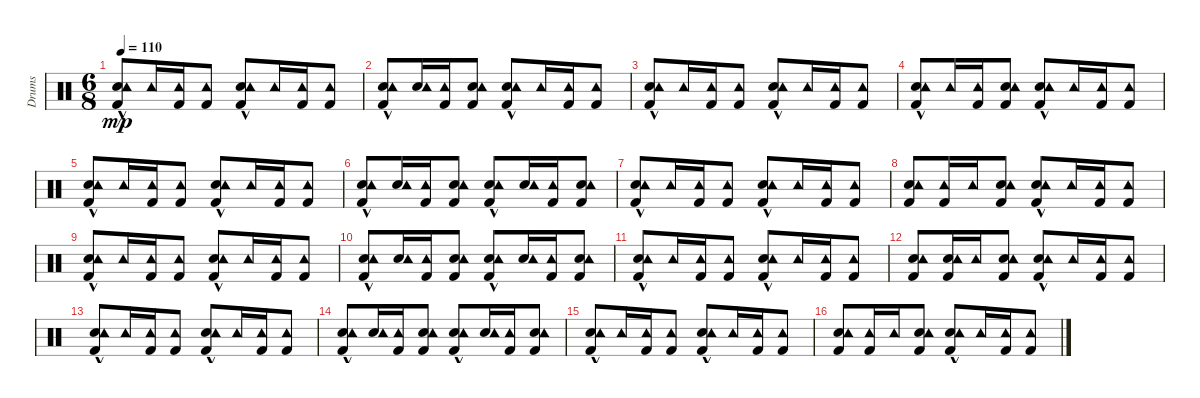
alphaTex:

\track ("Drums" "Drums") {instrument percussion}
\staff {score}
\articulation defaults
\ts (6 8)
\tempo 110
\clef neutral
\ks c
("Hand Clap (hit)" "Tambourine (hit)" "Kick (hit) 2"{hac}).8{dy mp} "Tambourine (hit)".16 ("Tambourine (hit)" "Kick (hit) 2").16 ("Tambourine (hit)" "Kick (hit) 2").8 ("Hand Clap (hit)" "Tambourine (hit)" "Kick (hit) 2"{hac}).8 "Tambourine (hit)".16 ("Tambourine (hit)" "Kick (hit) 2").16 ("Tambourine (hit)" "Kick (hit) 2").8 |
("Hand Clap (hit)" "Tambourine (hit)" "Kick (hit) 2"{hac}).8 ("Hand Clap (hit)" "Tambourine (hit)").16 ("Tambourine (hit)" "Kick (hit) 2").16 ("Hand Clap (hit)" "Tambourine (hit)" "Kick (hit) 2").8 ("Hand Clap (hit)" "Tambourine (hit)" "Kick (hit) 2"{hac}).8 "Tambourine (hit)".16 ("Tambourine (hit)" "Kick (hit) 2").16 ("Tambourine (hit)" "Kick (hit) 2").8 |
("Hand Clap (hit)" "Tambourine (hit)" "Kick (hit) 2"{hac}).8 "Tambourine (hit)".16 ("Tambourine (hit)" "Kick (hit) 2").16 ("Tambourine (hit)" "Kick (hit) 2").8 ("Hand Clap (hit)" "Tambourine (hit)" "Kick (hit) 2"{hac}).8 "Tambourine (hit)".16 ("Tambourine (hit)" "Kick (hit) 2").16 ("Tambourine (hit)" "Kick (hit) 2").8 |
("Hand Clap (hit)" "Tambourine (hit)" "Kick (hit) 2"{hac}).8 "Tambourine (hit)".16 ("Tambourine (hit)" "Kick (hit) 2").16 ("Hand Clap (hit)" "Tambourine (hit)" "Kick (hit) 2").8 ("Hand Clap (hit)" "Tambourine (hit)" "Kick (hit) 2"{hac}).8 "Tambourine (hit)".16 ("Tambourine (hit)" "Kick (hit) 2").16 ("Tambourine (hit)" "Kick (hit) 2").8 |
("Hand Clap (hit)" "Tambourine (hit)" "Kick (hit) 2"{hac}).8 "Tambourine (hit)".16 ("Tambourine (hit)" "Kick (hit) 2").16 ("Tambourine (hit)" "Kick (hit) 2").8 ("Hand Clap (hit)" "Tambourine (hit)" "Kick (hit) 2"{hac}).8 "Tambourine (hit)".16 ("Tambourine (hit)" "Kick (hit) 2").16 ("Tambourine (hit)" "Kick (hit) 2").8 |
("Hand Clap (hit)" "Tambourine (hit)" "Kick (hit) 2"{hac}).8 ("Hand Clap (hit)" "Tambourine (hit)").16 ("Tambourine (hit)" "Kick (hit) 2").16 ("Hand Clap (hit)" "Tambourine (hit)" "Kick (hit) 2").8 ("Hand Clap (hit)" "Tambourine (hit)" "Kick (hit) 2"{hac}).8 ("Hand Clap (hit)" "Tambourine (hit)").16 ("Tambourine (hit)" "Kick (hit) 2").16 ("Hand Clap (hit)" "Tambourine (hit)" "Kick (hit) 2").8 |
("Hand Clap (hit)" "Tambourine (hit)" "Kick (hit) 2"{hac}).8 "Tambourine (hit)".16 ("Tambourine (hit)" "Kick (hit) 2").16 ("Tambourine (hit)" "Kick (hit) 2").8 ("Hand Clap (hit)" "Tambourine (hit)" "Kick (hit) 2"{hac}).8 "Tambourine (hit)".16 ("Tambourine (hit)" "Kick (hit) 2").16 ("Tambourine (hit)" "Kick (hit) 2").8 |
("Hand Clap (hit)" "Tambourine (hit)" "Kick (hit) 2").8 ("Tambourine (hit)" "Kick (hit) 2").16 "Tambourine (hit)".16 ("Hand Clap (hit)" "Tambourine (hit)" "Kick (hit) 2").8 ("Hand Clap (hit)" "Tambourine (hit)" "Kick (hit) 2"{hac}).8 "Tambourine (hit)".16 ("Tambourine (hit)" "Kick (hit) 2").16 ("Tambourine (hit)" "Kick (hit) 2").8 |
("Hand Clap (hit)" "Tambourine (hit)" "Kick (hit) 2"{hac}).8 "Tambourine (hit)".16 ("Tambourine (hit)" "Kick (hit) 2").16 ("Tambourine (hit)" "Kick (hit) 2").8 ("Hand Clap (hit)" "Tambourine (hit)" "Kick (hit) 2"{hac}).8 "Tambourine (hit)".16 ("Tambourine (hit)" "Kick (hit) 2").16 ("Tambourine (hit)" "Kick (hit) 2").8 |
("Hand Clap (hit)" "Tambourine (hit)" "Kick (hit) 2"{hac}).8 ("Hand Clap (hit)" "Tambourine (hit)").16 ("Tambourine (hit)" "Kick (hit) 2").16 ("Hand Clap (hit)" "Tambourine (hit)" "Kick (hit) 2").8 ("Hand Clap (hit)" "Tambourine (hit)" "Kick (hit) 2"{hac}).8 ("Hand Clap (hit)" "Tambourine (hit)").16 ("Tambourine (hit)" "Kick (hit) 2").16 ("Hand Clap (hit)" "Tambourine (hit)" "Kick (hit) 2").8 |
("Hand Clap (hit)" "Tambourine (hit)" "Kick (hit) 2"{hac}).8 "Tambourine (hit)".16 ("Tambourine (hit)" "Kick (hit) 2").16 ("Tambourine (hit)" "Kick (hit) 2").8 ("Hand Clap (hit)" "Tambourine (hit)" "Kick (hit) 2"{hac}).8 "Tambourine (hit)".16 ("Tambourine (hit)" "Kick (hit) 2").16 ("Tambourine (hit)" "Kick (hit) 2").8 |
("Hand Clap (hit)" "Tambourine (hit)" "Kick (hit) 2").8 ("Hand Clap (hit)" "Tambourine (hit)" "Kick (hit) 2").16 "Tambourine (hit)".16 ("Hand Clap (hit)" "Tambourine (hit)" "Kick (hit) 2").8 ("Hand Clap (hit)" "Tambourine (hit)" "Kick (hit) 2"{hac}).8 "Tambourine (hit)".16 ("Tambourine (hit)" "Kick (hit) 2").16 ("Tambourine (hit)" "Kick (hit) 2").8 |
("Hand Clap (hit)" "Tambourine (hit)" "Kick (hit) 2"{hac}).8 "Tambourine (hit)".16 ("Tambourine (hit)" "Kick (hit) 2").16 ("Tambourine (hit)" "Kick (hit) 2").8 ("Hand Clap (hit)" "Tambourine (hit)" "Kick (hit) 2"{hac}).8 "Tambourine (hit)".16 ("Tambourine (hit)" "Kick (hit) 2").16 ("Tambourine (hit)" "Kick (hit) 2").8 |
("Hand Clap (hit)" "Tambourine (hit)" "Kick (hit) 2"{hac}).8 ("Hand Clap (hit)" "Tambourine (hit)").16 ("Tambourine (hit)" "Kick (hit) 2").16 ("Hand Clap (hit)" "Tambourine (hit)" "Kick (hit) 2").8 ("Hand Clap (hit)" "Tambourine (hit)" "Kick (hit) 2"{hac}).8 ("Hand Clap (hit)" "Tambourine (hit)").16 ("Tambourine (hit)" "Kick (hit) 2").16 ("Hand Clap (hit)" "Tambourine (hit)" "Kick (hit) 2").8 |
("Hand Clap (hit)" "Tambourine (hit)" "Kick (hit) 2"{hac}).8 "Tambourine (hit)".16 ("Tambourine (hit)" "Kick (hit) 2").16 ("Tambourine (hit)" "Kick (hit) 2").8 ("Hand Clap (hit)" "Tambourine (hit)" "Kick (hit) 2"{hac}).8 "Tambourine (hit)".16 ("Tambourine (hit)" "Kick (hit) 2").16 ("Tambourine (hit)" "Kick (hit) 2").8 |
("Hand Clap (hit)" "Tambourine (hit)" "Kick (hit) 2").8 ("Tambourine (hit)" "Kick (hit) 2").16 "Tambourine (hit)".16 ("Hand Clap (hit)" "Tambourine (hit)" "Kick (hit) 2").8 ("Hand Clap (hit)" "Tambourine (hit)" "Kick (hit) 2"{hac}).8 "Tambourine (hit)".16 ("Tambourine (hit)" "Kick (hit) 2").16 ("Tambourine (hit)" "Kick (hit) 2").8
